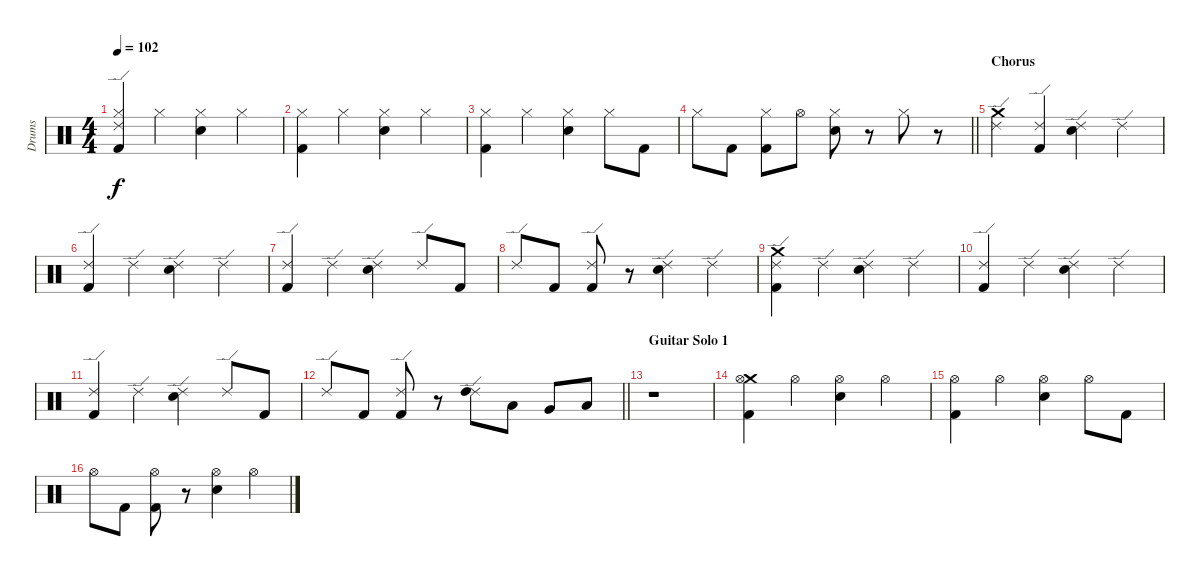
\track ("Drums" "Drums") {instrument percussion}
\staff {score}
\articulation defaults
\ts (4 4)
\tempo 102
\clef neutral
\ks c
("Ride (edge) 2" "Hi-Hat (closed)" "Kick (hit) 2").4{dy f} "Hi-Hat (closed)".4 ("Hi-Hat (closed)" "Electric Snare (hit)").4 "Hi-Hat (closed)".4 |
("Hi-Hat (closed)" "Kick (hit) 2").4 "Hi-Hat (closed)".4 ("Hi-Hat (closed)" "Electric Snare (hit)").4 "Hi-Hat (closed)".4 |
("Hi-Hat (closed)" "Kick (hit) 2").4 "Hi-Hat (closed)".4 ("Hi-Hat (closed)" "Electric Snare (hit)").4 "Hi-Hat (closed)".8 "Kick (hit) 2".8 |
\barLineRight lightlight "Hi-Hat (closed)".8 "Kick (hit) 2".8
("Hi-Hat (closed)" "Kick (hit) 2").8 "Hi-Hat (open)".8 ("Hi-Hat (closed)" "Electric Snare (hit)").8 r.8 "Hi-Hat (closed)".8 r.8 |
\section ("" "Chorus")
("Crash medium (hit)" "Ride (edge) 2").4 ("Ride (edge) 2" "Kick (hit) 2").4 ("Ride (edge) 2" "Electric Snare (hit)").4 "Ride (edge) 2".4 |
("Ride (edge) 2" "Kick (hit) 2").4 "Ride (edge) 2".4 ("Ride (edge) 2" "Electric Snare (hit)").4 "Ride (edge) 2".4 |
("Ride (edge) 2" "Kick (hit) 2").4 "Ride (edge) 2".4 ("Ride (edge) 2" "Electric Snare (hit)").4 "Ride (edge) 2".8 "Kick (hit) 2".8 |
"Ride (edge) 2".8 "Kick (hit) 2".8 ("Ride (edge) 2" "Kick (hit) 2").8 r.8 ("Ride (edge) 2" "Electric Snare (hit)").4 "Ride (edge) 2".4 |
("Crash medium (hit)" "Ride (edge) 2" "Kick (hit) 2").4 "Ride (edge) 2".4 ("Ride (edge) 2" "Electric Snare (hit)").4 "Ride (edge) 2".4 |
("Ride (edge) 2" "Kick (hit) 2").4 "Ride (edge) 2".4 ("Ride (edge) 2" "Electric Snare (hit)").4 "Ride (edge) 2".4 |
("Ride (edge) 2" "Kick (hit) 2").4 "Ride (edge) 2".4 ("Ride (edge) 2" "Electric Snare (hit)").4 "Ride (edge) 2".8 "Kick (hit) 2".8 |
\barLineRight lightlight "Ride (edge) 2".8 "Kick (hit) 2".8
("Ride (edge) 2" "Kick (hit) 2").8 r.8 ("Ride (edge) 2" "High Tom (hit)").8 "Low Tom (hit)".8 "Very Low Tom (hit)".8 "Low Floor Tom (hit)".8 |
\section ("" "Guitar Solo 1")
r.1 |
("Crash medium (hit)" "Hi-Hat (open)" "Kick (hit) 2").4 "Hi-Hat (open)".4 ("Hi-Hat (open)" "Electric Snare (hit)").4 "Hi-Hat (open)".4 |
("Hi-Hat (open)" "Kick (hit) 2").4 "Hi-Hat (open)".4 ("Hi-Hat (open)" "Electric Snare (hit)").4 "Hi-Hat (open)".8 "Kick (hit) 2".8 |
"Hi-Hat (open)".8 "Kick (hit) 2".8 ("Hi-Hat (open)" "Kick (hit) 2").8 r.8 ("Hi-Hat (open)" "Electric Snare (hit)").4 "Hi-Hat (open)".4
